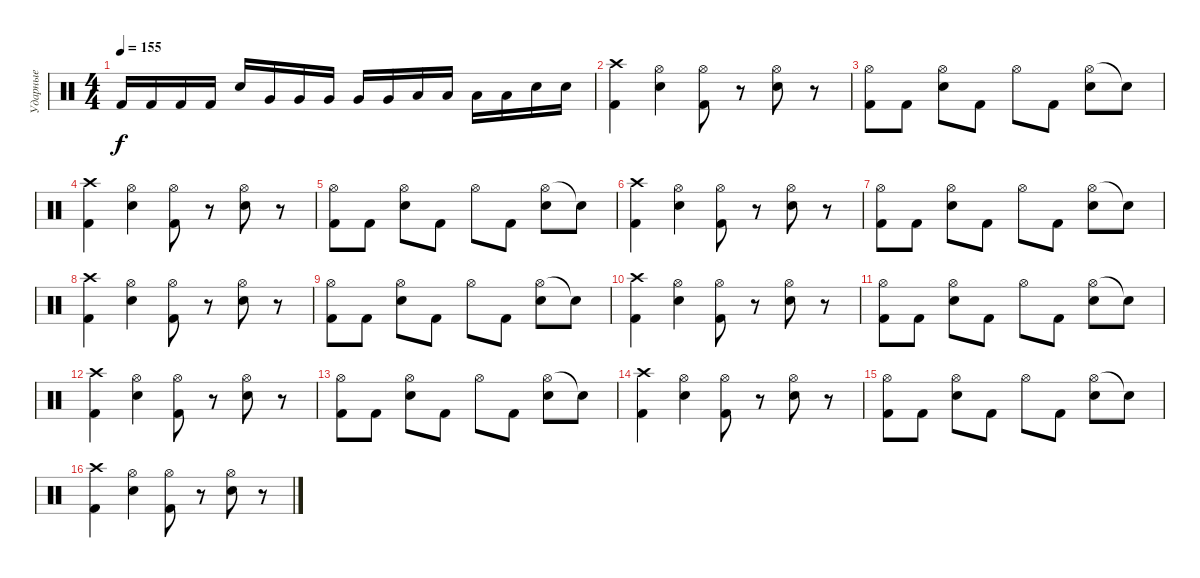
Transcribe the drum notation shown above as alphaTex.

\track ("Ударные" "Ударные") {instrument percussion}
\staff {score}
\articulation defaults
\ts (4 4)
\tempo 155
\clef neutral
\ks c "Kick (hit) 2".16{dy f} "Kick (hit) 2".16 "Kick (hit) 2".16 "Kick (hit) 2".16 "Electric Snare (hit)".16 "Very Low Tom (hit)".16 "Very Low Tom (hit)".16 "Very Low Tom (hit)".16 "Very Low Tom (hit)".16 "Very Low Tom (hit)".16 "Low Tom (hit)".16 "Low Tom (hit)".16 "Low Tom (hit)".16 "Low Tom (hit)".16 "Electric Snare (hit)".16 "Electric Snare (hit)".16
|
("Crash high (hit)" "Kick (hit) 2").4 ("Hi-Hat (open)" "Electric Snare (hit)").4 ("Hi-Hat (open)" "Kick (hit) 2").8 r.8 ("Hi-Hat (open)" "Electric Snare (hit)").8 r.8 |
("Hi-Hat (open)" "Kick (hit) 2").8 "Kick (hit) 2".8 ("Hi-Hat (open)" "Electric Snare (hit)").8 "Kick (hit) 2".8 "Hi-Hat (open)".8 "Kick (hit) 2".8 ("Hi-Hat (open)" "Electric Snare (hit)").8 "Snare (hit)"{t}.8 |
("Crash high (hit)" "Kick (hit) 2").4 ("Hi-Hat (open)" "Electric Snare (hit)").4 ("Hi-Hat (open)" "Kick (hit) 2").8 r.8 ("Hi-Hat (open)" "Electric Snare (hit)").8 r.8 |
("Hi-Hat (open)" "Kick (hit) 2").8 "Kick (hit) 2".8 ("Hi-Hat (open)" "Electric Snare (hit)").8 "Kick (hit) 2".8 "Hi-Hat (open)".8 "Kick (hit) 2".8 ("Hi-Hat (open)" "Electric Snare (hit)").8 "Snare (hit)"{t}.8 |
("Crash high (hit)" "Kick (hit) 2").4 ("Hi-Hat (open)" "Electric Snare (hit)").4 ("Hi-Hat (open)" "Kick (hit) 2").8 r.8 ("Hi-Hat (open)" "Electric Snare (hit)").8 r.8 |
("Hi-Hat (open)" "Kick (hit) 2").8 "Kick (hit) 2".8 ("Hi-Hat (open)" "Electric Snare (hit)").8 "Kick (hit) 2".8 "Hi-Hat (open)".8 "Kick (hit) 2".8 ("Hi-Hat (open)" "Electric Snare (hit)").8 "Snare (hit)"{t}.8 |
("Crash high (hit)" "Kick (hit) 2").4 ("Hi-Hat (open)" "Electric Snare (hit)").4 ("Hi-Hat (open)" "Kick (hit) 2").8 r.8 ("Hi-Hat (open)" "Electric Snare (hit)").8 r.8 |
("Hi-Hat (open)" "Kick (hit) 2").8 "Kick (hit) 2".8 ("Hi-Hat (open)" "Electric Snare (hit)").8 "Kick (hit) 2".8 "Hi-Hat (open)".8 "Kick (hit) 2".8 ("Hi-Hat (open)" "Electric Snare (hit)").8 "Snare (hit)"{t}.8 |
("Crash high (hit)" "Kick (hit) 2").4 ("Hi-Hat (open)" "Electric Snare (hit)").4 ("Hi-Hat (open)" "Kick (hit) 2").8 r.8 ("Hi-Hat (open)" "Electric Snare (hit)").8 r.8 |
("Hi-Hat (open)" "Kick (hit) 2").8 "Kick (hit) 2".8 ("Hi-Hat (open)" "Electric Snare (hit)").8 "Kick (hit) 2".8 "Hi-Hat (open)".8 "Kick (hit) 2".8 ("Hi-Hat (open)" "Electric Snare (hit)").8 "Snare (hit)"{t}.8 |
("Crash high (hit)" "Kick (hit) 2").4 ("Hi-Hat (open)" "Electric Snare (hit)").4 ("Hi-Hat (open)" "Kick (hit) 2").8 r.8 ("Hi-Hat (open)" "Electric Snare (hit)").8 r.8 |
("Hi-Hat (open)" "Kick (hit) 2").8 "Kick (hit) 2".8 ("Hi-Hat (open)" "Electric Snare (hit)").8 "Kick (hit) 2".8 "Hi-Hat (open)".8 "Kick (hit) 2".8 ("Hi-Hat (open)" "Electric Snare (hit)").8 "Snare (hit)"{t}.8 |
("Crash high (hit)" "Kick (hit) 2").4 ("Hi-Hat (open)" "Electric Snare (hit)").4 ("Hi-Hat (open)" "Kick (hit) 2").8 r.8 ("Hi-Hat (open)" "Electric Snare (hit)").8 r.8 |
("Hi-Hat (open)" "Kick (hit) 2").8 "Kick (hit) 2".8 ("Hi-Hat (open)" "Electric Snare (hit)").8 "Kick (hit) 2".8 "Hi-Hat (open)".8 "Kick (hit) 2".8 ("Hi-Hat (open)" "Electric Snare (hit)").8 "Snare (hit)"{t}.8 |
("Crash high (hit)" "Kick (hit) 2").4 ("Hi-Hat (open)" "Electric Snare (hit)").4 ("Hi-Hat (open)" "Kick (hit) 2").8 r.8 ("Hi-Hat (open)" "Electric Snare (hit)").8 r.8
